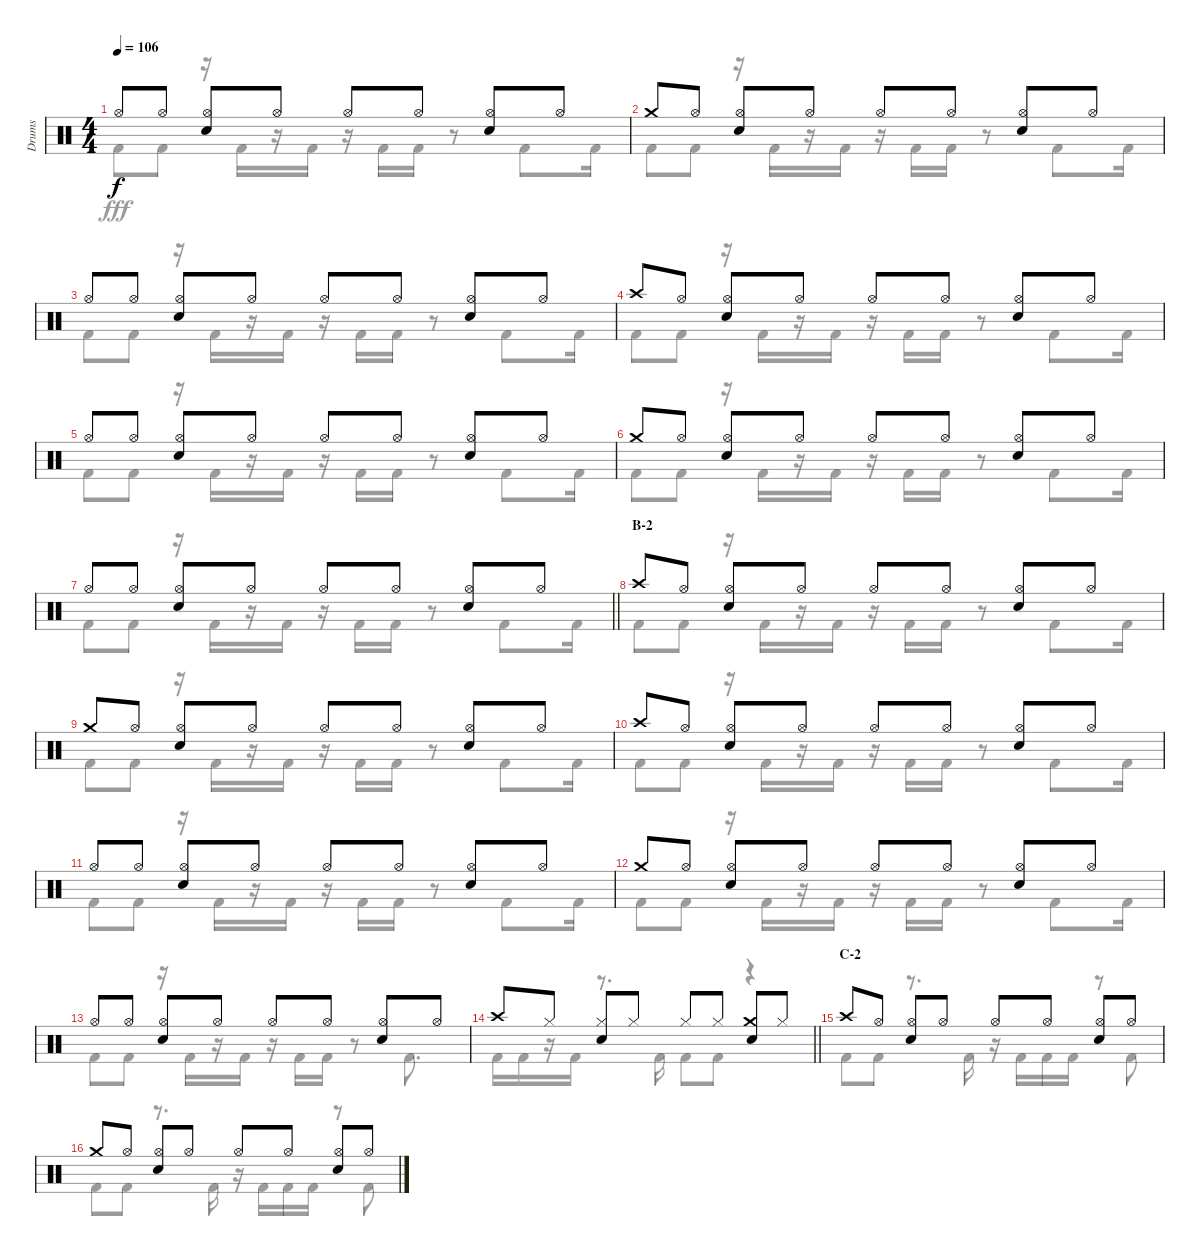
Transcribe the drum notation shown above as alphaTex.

\track ("Drums" "Drums") {instrument percussion}
\staff {score}
\articulation defaults
\voice
\ts (4 4)
\tempo 106
\clef neutral
\ks c "Hi-Hat (open)".8{dy f} "Hi-Hat (open)".8
("Hi-Hat (open)" "Snare (hit) 2").8 "Hi-Hat (open)".8 "Hi-Hat (open)".8 "Hi-Hat (open)".8 ("Hi-Hat (open)" "Snare (hit) 2").8 "Hi-Hat (open)".8 |
"Crash medium (hit)".8 "Hi-Hat (open)".8 ("Hi-Hat (open)" "Snare (hit) 2").8 "Hi-Hat (open)".8 "Hi-Hat (open)".8 "Hi-Hat (open)".8 ("Hi-Hat (open)" "Snare (hit) 2").8 "Hi-Hat (open)".8 |
"Hi-Hat (open)".8 "Hi-Hat (open)".8 ("Hi-Hat (open)" "Snare (hit) 2").8 "Hi-Hat (open)".8 "Hi-Hat (open)".8 "Hi-Hat (open)".8 ("Hi-Hat (open)" "Snare (hit) 2").8 "Hi-Hat (open)".8 |
"Crash high (hit)".8 "Hi-Hat (open)".8 ("Hi-Hat (open)" "Snare (hit) 2").8 "Hi-Hat (open)".8 "Hi-Hat (open)".8 "Hi-Hat (open)".8 ("Hi-Hat (open)" "Snare (hit) 2").8 "Hi-Hat (open)".8 |
"Hi-Hat (open)".8 "Hi-Hat (open)".8 ("Hi-Hat (open)" "Snare (hit) 2").8 "Hi-Hat (open)".8 "Hi-Hat (open)".8 "Hi-Hat (open)".8 ("Hi-Hat (open)" "Snare (hit) 2").8 "Hi-Hat (open)".8 |
"Crash medium (hit)".8 "Hi-Hat (open)".8 ("Hi-Hat (open)" "Snare (hit) 2").8 "Hi-Hat (open)".8 "Hi-Hat (open)".8 "Hi-Hat (open)".8 ("Hi-Hat (open)" "Snare (hit) 2").8 "Hi-Hat (open)".8 |
\barLineRight lightlight "Hi-Hat (open)".8 "Hi-Hat (open)".8
("Hi-Hat (open)" "Snare (hit) 2").8 "Hi-Hat (open)".8 "Hi-Hat (open)".8 "Hi-Hat (open)".8 ("Hi-Hat (open)" "Snare (hit) 2").8 "Hi-Hat (open)".8 |
\section ("" "B-2")
"Crash high (hit)".8 "Hi-Hat (open)".8 ("Hi-Hat (open)" "Snare (hit) 2").8 "Hi-Hat (open)".8 "Hi-Hat (open)".8 "Hi-Hat (open)".8 ("Hi-Hat (open)" "Snare (hit) 2").8 "Hi-Hat (open)".8 |
"Crash medium (hit)".8 "Hi-Hat (open)".8 ("Hi-Hat (open)" "Snare (hit) 2").8 "Hi-Hat (open)".8 "Hi-Hat (open)".8 "Hi-Hat (open)".8 ("Hi-Hat (open)" "Snare (hit) 2").8 "Hi-Hat (open)".8 |
"Crash high (hit)".8 "Hi-Hat (open)".8 ("Hi-Hat (open)" "Snare (hit) 2").8 "Hi-Hat (open)".8 "Hi-Hat (open)".8 "Hi-Hat (open)".8 ("Hi-Hat (open)" "Snare (hit) 2").8 "Hi-Hat (open)".8 |
"Hi-Hat (open)".8 "Hi-Hat (open)".8 ("Hi-Hat (open)" "Snare (hit) 2").8 "Hi-Hat (open)".8 "Hi-Hat (open)".8 "Hi-Hat (open)".8 ("Hi-Hat (open)" "Snare (hit) 2").8 "Hi-Hat (open)".8 |
"Crash medium (hit)".8 "Hi-Hat (open)".8 ("Hi-Hat (open)" "Snare (hit) 2").8 "Hi-Hat (open)".8 "Hi-Hat (open)".8 "Hi-Hat (open)".8 ("Hi-Hat (open)" "Snare (hit) 2").8 "Hi-Hat (open)".8 |
"Hi-Hat (open)".8 "Hi-Hat (open)".8 ("Hi-Hat (open)" "Snare (hit) 2").8 "Hi-Hat (open)".8 "Hi-Hat (open)".8 "Hi-Hat (open)".8 ("Hi-Hat (open)" "Snare (hit) 2").8 "Hi-Hat (open)".8 |
\barLineRight lightlight "Crash high (hit)".8 "Hi-Hat (closed)".8
("Hi-Hat (closed)" "Snare (hit) 2").8 "Hi-Hat (closed)".8 "Hi-Hat (closed)".8 "Hi-Hat (closed)".8 ("Crash medium (hit)" "Snare (hit) 2").8 "Hi-Hat (closed)".8 |
\section ("" "C-2")
"Crash high (hit)".8 "Hi-Hat (open)".8 ("Hi-Hat (open)" "Snare (hit) 2").8 "Hi-Hat (open)".8 "Hi-Hat (open)".8 "Hi-Hat (open)".8 ("Hi-Hat (open)" "Snare (hit) 2").8 "Hi-Hat (open)".8 |
"Crash medium (hit)".8 "Hi-Hat (open)".8 ("Hi-Hat (open)" "Snare (hit) 2").8 "Hi-Hat (open)".8 "Hi-Hat (open)".8 "Hi-Hat (open)".8 ("Hi-Hat (open)" "Snare (hit) 2").8 "Hi-Hat (open)".8
\voice
\clef neutral
\ottava regular
\simile none
\ks c "Kick (hit) 2".8{dy fff} "Kick (hit) 2".8
r.16 "Kick (hit) 2".16 r.16 "Kick (hit) 2".16 r.16 "Kick (hit) 2".16 "Kick (hit) 2".16 r.8 "Kick (hit) 2".8 "Kick (hit) 2".16 |
"Kick (hit) 2".8 "Kick (hit) 2".8 r.16 "Kick (hit) 2".16 r.16 "Kick (hit) 2".16 r.16 "Kick (hit) 2".16 "Kick (hit) 2".16 r.8 "Kick (hit) 2".8 "Kick (hit) 2".16 |
"Kick (hit) 2".8 "Kick (hit) 2".8 r.16 "Kick (hit) 2".16 r.16 "Kick (hit) 2".16 r.16 "Kick (hit) 2".16 "Kick (hit) 2".16 r.8 "Kick (hit) 2".8 "Kick (hit) 2".16 |
"Kick (hit) 2".8 "Kick (hit) 2".8 r.16 "Kick (hit) 2".16 r.16 "Kick (hit) 2".16 r.16 "Kick (hit) 2".16 "Kick (hit) 2".16 r.8 "Kick (hit) 2".8 "Kick (hit) 2".16 |
"Kick (hit) 2".8 "Kick (hit) 2".8 r.16 "Kick (hit) 2".16 r.16 "Kick (hit) 2".16 r.16 "Kick (hit) 2".16 "Kick (hit) 2".16 r.8 "Kick (hit) 2".8 "Kick (hit) 2".16 |
"Kick (hit) 2".8 "Kick (hit) 2".8 r.16 "Kick (hit) 2".16 r.16 "Kick (hit) 2".16 r.16 "Kick (hit) 2".16 "Kick (hit) 2".16 r.8 "Kick (hit) 2".8 "Kick (hit) 2".16 |
\barLineRight lightlight "Kick (hit) 2".8 "Kick (hit) 2".8
r.16 "Kick (hit) 2".16 r.16 "Kick (hit) 2".16 r.16 "Kick (hit) 2".16 "Kick (hit) 2".16 r.8 "Kick (hit) 2".8 "Kick (hit) 2".16 |
"Kick (hit) 2".8 "Kick (hit) 2".8 r.16 "Kick (hit) 2".16 r.16 "Kick (hit) 2".16 r.16 "Kick (hit) 2".16 "Kick (hit) 2".16 r.8 "Kick (hit) 2".8 "Kick (hit) 2".16 |
"Kick (hit) 2".8 "Kick (hit) 2".8 r.16 "Kick (hit) 2".16 r.16 "Kick (hit) 2".16 r.16 "Kick (hit) 2".16 "Kick (hit) 2".16 r.8 "Kick (hit) 2".8 "Kick (hit) 2".16 |
"Kick (hit) 2".8 "Kick (hit) 2".8 r.16 "Kick (hit) 2".16 r.16 "Kick (hit) 2".16 r.16 "Kick (hit) 2".16 "Kick (hit) 2".16 r.8 "Kick (hit) 2".8 "Kick (hit) 2".16 |
"Kick (hit) 2".8 "Kick (hit) 2".8 r.16 "Kick (hit) 2".16 r.16 "Kick (hit) 2".16 r.16 "Kick (hit) 2".16 "Kick (hit) 2".16 r.8 "Kick (hit) 2".8 "Kick (hit) 2".16 |
"Kick (hit) 2".8 "Kick (hit) 2".8 r.16 "Kick (hit) 2".16 r.16 "Kick (hit) 2".16 r.16 "Kick (hit) 2".16 "Kick (hit) 2".16 r.8 "Kick (hit) 2".8 "Kick (hit) 2".16 |
"Kick (hit) 2".8 "Kick (hit) 2".8 r.16 "Kick (hit) 2".16 r.16 "Kick (hit) 2".16 r.16 "Kick (hit) 2".16 "Kick (hit) 2".16 r.8 "Kick (hit) 2".8{d} |
\barLineRight lightlight "Kick (hit) 2".16 "Kick (hit) 2".16
r.16 "Kick (hit) 2".16 r.8{d} "Kick (hit) 2".16 "Kick (hit) 2".8 "Kick (hit) 2".8 r.4 |
"Kick (hit) 2".8 "Kick (hit) 2".8 r.8{d} "Kick (hit) 2".16 r.16 "Kick (hit) 2".16 "Kick (hit) 2".16 "Kick (hit) 2".16 r.8 "Kick (hit) 2".8 |
"Kick (hit) 2".8 "Kick (hit) 2".8 r.8{d} "Kick (hit) 2".16 r.16 "Kick (hit) 2".16 "Kick (hit) 2".16 "Kick (hit) 2".16 r.8 "Kick (hit) 2".8
